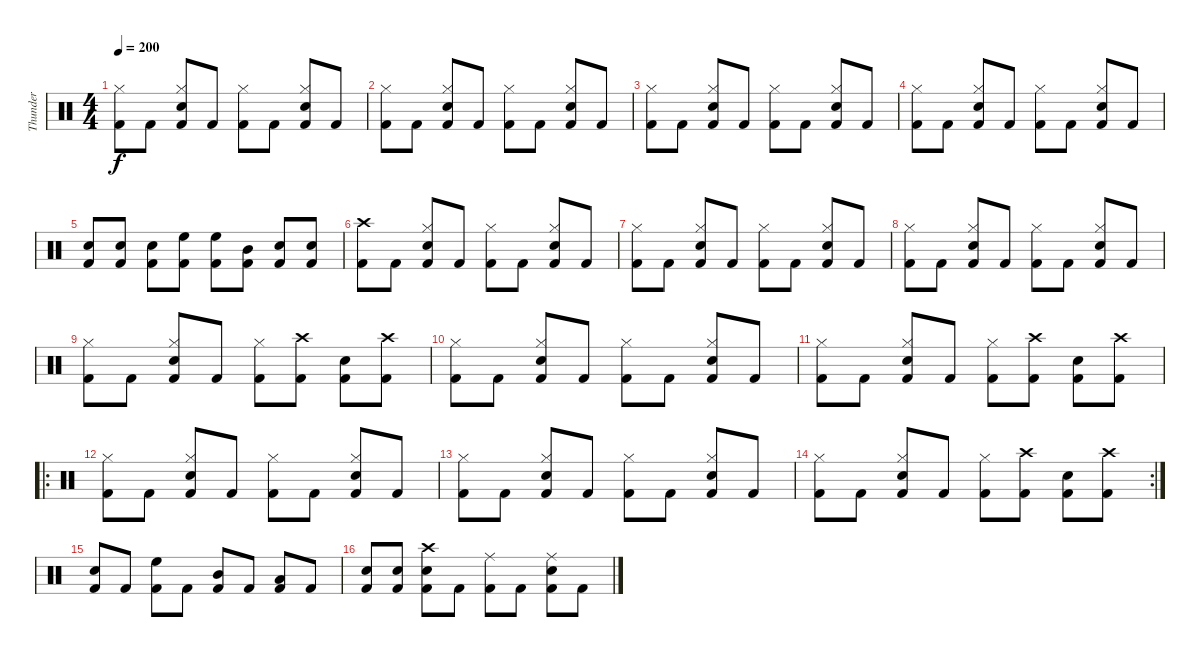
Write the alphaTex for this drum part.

\track ("Thunder" "Thunder") {instrument percussion}
\staff {score}
\articulation defaults
\ts (4 4)
\tempo 200
\clef neutral
\ks c
("Kick (hit) 2" "Hi-Hat (closed)").8{dy f} "Kick (hit) 2".8 ("Kick (hit) 2" "Hi-Hat (closed)" "Snare (hit) 2").8 "Kick (hit) 2".8 ("Kick (hit) 2" "Hi-Hat (closed)").8 "Kick (hit) 2".8 ("Kick (hit) 2" "Hi-Hat (closed)" "Snare (hit) 2").8 "Kick (hit) 2".8 |
("Kick (hit) 2" "Hi-Hat (closed)").8 "Kick (hit) 2".8 ("Kick (hit) 2" "Hi-Hat (closed)" "Snare (hit) 2").8 "Kick (hit) 2".8 ("Kick (hit) 2" "Hi-Hat (closed)").8 "Kick (hit) 2".8 ("Kick (hit) 2" "Hi-Hat (closed)" "Snare (hit) 2").8 "Kick (hit) 2".8 |
("Kick (hit) 2" "Hi-Hat (closed)").8 "Kick (hit) 2".8 ("Kick (hit) 2" "Hi-Hat (closed)" "Snare (hit) 2").8 "Kick (hit) 2".8 ("Kick (hit) 2" "Hi-Hat (closed)").8 "Kick (hit) 2".8 ("Kick (hit) 2" "Hi-Hat (closed)" "Snare (hit) 2").8 "Kick (hit) 2".8 |
("Kick (hit) 2" "Hi-Hat (closed)").8 "Kick (hit) 2".8 ("Kick (hit) 2" "Hi-Hat (closed)" "Snare (hit) 2").8 "Kick (hit) 2".8 ("Kick (hit) 2" "Hi-Hat (closed)").8 "Kick (hit) 2".8 ("Kick (hit) 2" "Hi-Hat (closed)" "Snare (hit) 2").8 "Kick (hit) 2".8 |
("Kick (hit) 2" "Snare (hit) 2").8 ("Kick (hit) 2" "Snare (hit) 2").8 ("Kick (hit) 2" "Snare (hit) 2").8 ("Kick (hit) 2" "High Floor Tom (hit)").8 ("Kick (hit) 2" "High Floor Tom (hit)").8 ("Kick (hit) 2" "Mid Tom (hit)").8 ("Kick (hit) 2" "Snare (hit) 2").8 ("Kick (hit) 2" "Snare (hit) 2").8 |
("Kick (hit) 2" "Crash high (hit)").8 "Kick (hit) 2".8 ("Kick (hit) 2" "Hi-Hat (closed)" "Snare (hit) 2").8 "Kick (hit) 2".8 ("Kick (hit) 2" "Hi-Hat (closed)").8 "Kick (hit) 2".8 ("Kick (hit) 2" "Hi-Hat (closed)" "Snare (hit) 2").8 "Kick (hit) 2".8 |
("Kick (hit) 2" "Hi-Hat (closed)").8 "Kick (hit) 2".8 ("Kick (hit) 2" "Hi-Hat (closed)" "Snare (hit) 2").8 "Kick (hit) 2".8 ("Kick (hit) 2" "Hi-Hat (closed)").8 "Kick (hit) 2".8 ("Kick (hit) 2" "Hi-Hat (closed)" "Snare (hit) 2").8 "Kick (hit) 2".8 |
("Kick (hit) 2" "Hi-Hat (closed)").8 "Kick (hit) 2".8 ("Kick (hit) 2" "Hi-Hat (closed)" "Snare (hit) 2").8 "Kick (hit) 2".8 ("Kick (hit) 2" "Hi-Hat (closed)").8 "Kick (hit) 2".8 ("Kick (hit) 2" "Hi-Hat (closed)" "Snare (hit) 2").8 "Kick (hit) 2".8 |
("Kick (hit) 2" "Hi-Hat (closed)").8 "Kick (hit) 2".8 ("Kick (hit) 2" "Hi-Hat (closed)" "Snare (hit) 2").8 "Kick (hit) 2".8 ("Kick (hit) 2" "Hi-Hat (closed)").8 ("Kick (hit) 2" "Crash high (hit)").8 ("Kick (hit) 2" "Snare (hit) 2").8 ("Kick (hit) 2" "Crash high (hit)").8 |
("Kick (hit) 2" "Hi-Hat (closed)").8 "Kick (hit) 2".8 ("Kick (hit) 2" "Hi-Hat (closed)" "Snare (hit) 2").8 "Kick (hit) 2".8 ("Kick (hit) 2" "Hi-Hat (closed)").8 "Kick (hit) 2".8 ("Kick (hit) 2" "Hi-Hat (closed)" "Snare (hit) 2").8 "Kick (hit) 2".8 |
("Kick (hit) 2" "Hi-Hat (closed)").8 "Kick (hit) 2".8 ("Kick (hit) 2" "Hi-Hat (closed)" "Snare (hit) 2").8 "Kick (hit) 2".8 ("Kick (hit) 2" "Hi-Hat (closed)").8 ("Kick (hit) 2" "Crash high (hit)").8 ("Kick (hit) 2" "Snare (hit) 2").8 ("Kick (hit) 2" "Crash high (hit)").8 |
\ro
("Kick (hit) 2" "Hi-Hat (closed)").8 "Kick (hit) 2".8 ("Kick (hit) 2" "Hi-Hat (closed)" "Snare (hit) 2").8 "Kick (hit) 2".8 ("Kick (hit) 2" "Hi-Hat (closed)").8 "Kick (hit) 2".8 ("Kick (hit) 2" "Hi-Hat (closed)" "Snare (hit) 2").8 "Kick (hit) 2".8 |
("Kick (hit) 2" "Hi-Hat (closed)").8 "Kick (hit) 2".8 ("Kick (hit) 2" "Hi-Hat (closed)" "Snare (hit) 2").8 "Kick (hit) 2".8 ("Kick (hit) 2" "Hi-Hat (closed)").8 "Kick (hit) 2".8 ("Kick (hit) 2" "Hi-Hat (closed)" "Snare (hit) 2").8 "Kick (hit) 2".8 |
\rc 2
("Kick (hit) 2" "Hi-Hat (closed)").8 "Kick (hit) 2".8 ("Kick (hit) 2" "Hi-Hat (closed)" "Snare (hit) 2").8 "Kick (hit) 2".8 ("Kick (hit) 2" "Hi-Hat (closed)").8 ("Kick (hit) 2" "Crash high (hit)").8 ("Kick (hit) 2" "Snare (hit) 2").8 ("Kick (hit) 2" "Crash high (hit)").8 |
("Kick (hit) 2" "Snare (hit) 2").8 "Kick (hit) 2".8 ("Kick (hit) 2" "High Floor Tom (hit)").8 "Kick (hit) 2".8 ("Kick (hit) 2" "Mid Tom (hit)").8 "Kick (hit) 2".8 ("Kick (hit) 2" "Low Tom (hit)").8 "Kick (hit) 2".8 |
("Kick (hit) 2" "Snare (hit) 2").8 ("Kick (hit) 2" "Snare (hit) 2").8 ("Kick (hit) 2" "Crash high (hit)" "Snare (hit) 2").8 "Kick (hit) 2".8 ("Kick (hit) 2" "Ride (middle)").8 "Kick (hit) 2".8 ("Kick (hit) 2" "Ride (middle)" "Snare (hit) 2").8 "Kick (hit) 2".8
